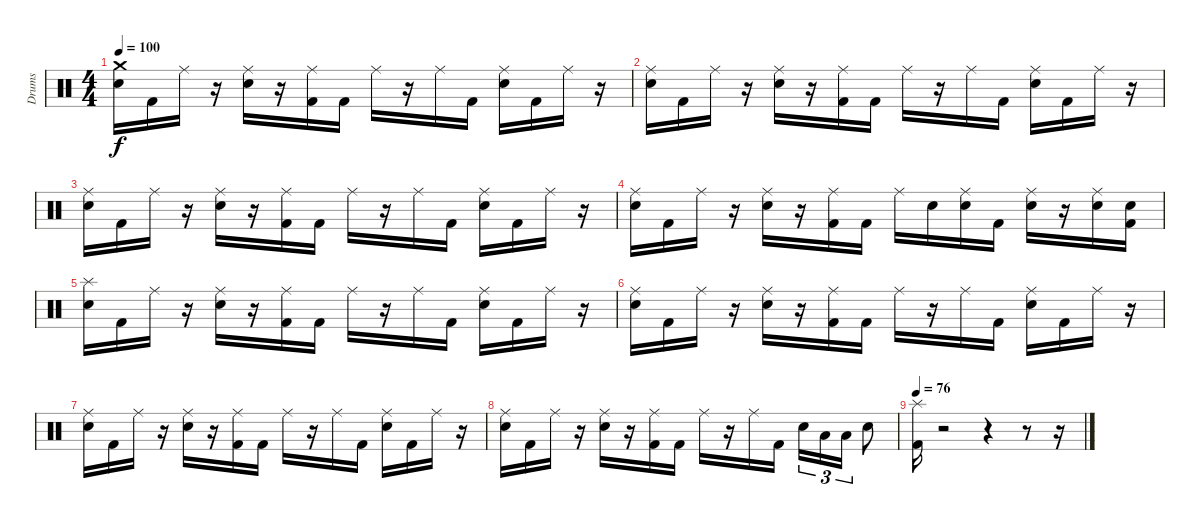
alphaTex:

\track ("Drums" "Drums") {instrument percussion}
\staff {score}
\articulation defaults
\ts (4 4)
\tempo 100
\clef neutral
\ks c
("Crash medium (hit)" "Snare (hit) 2").16{dy f} "Kick (hit) 2".16 "Ride (middle)".16 r.16 ("Ride (middle)" "Snare (hit) 2").16 r.16 ("Ride (middle)" "Kick (hit) 2").16 "Kick (hit) 2".16 "Ride (middle)".16 r.16 "Ride (middle)".16 "Kick (hit) 2".16 ("Ride (middle)" "Snare (hit) 2").16 "Kick (hit) 2".16 "Ride (middle)".16 r.16 |
("Ride (middle)" "Snare (hit) 2").16 "Kick (hit) 2".16 "Ride (middle)".16 r.16 ("Ride (middle)" "Snare (hit) 2").16 r.16 ("Ride (middle)" "Kick (hit) 2").16 "Kick (hit) 2".16 "Ride (middle)".16 r.16 "Ride (middle)".16 "Kick (hit) 2".16 ("Ride (middle)" "Snare (hit) 2").16 "Kick (hit) 2".16 "Ride (middle)".16 r.16 |
("Ride (middle)" "Snare (hit) 2").16 "Kick (hit) 2".16 "Ride (middle)".16 r.16 ("Ride (middle)" "Snare (hit) 2").16 r.16 ("Ride (middle)" "Kick (hit) 2").16 "Kick (hit) 2".16 "Ride (middle)".16 r.16 "Ride (middle)".16 "Kick (hit) 2".16 ("Ride (middle)" "Snare (hit) 2").16 "Kick (hit) 2".16 "Ride (middle)".16 r.16 |
("Ride (middle)" "Snare (hit) 2").16 "Kick (hit) 2".16 "Ride (middle)".16 r.16 ("Ride (middle)" "Snare (hit) 2").16 r.16 ("Ride (middle)" "Kick (hit) 2").16 "Kick (hit) 2".16 "Ride (middle)".16 "Snare (hit) 2".16 ("Ride (middle)" "Snare (hit) 2").16 "Kick (hit) 2".16 ("Ride (middle)" "Snare (hit) 2").16 r.16 ("Ride (middle)" "Snare (hit) 2").16 ("Snare (hit) 2" "Kick (hit) 2").16 |
("Splash (hit)" "Snare (hit) 2").16 "Kick (hit) 2".16 "Ride (middle)".16 r.16 ("Ride (middle)" "Snare (hit) 2").16 r.16 ("Ride (middle)" "Kick (hit) 2").16 "Kick (hit) 2".16 "Ride (middle)".16 r.16 "Ride (middle)".16 "Kick (hit) 2".16 ("Ride (middle)" "Snare (hit) 2").16 "Kick (hit) 2".16 "Ride (middle)".16 r.16 |
("Ride (middle)" "Snare (hit) 2").16 "Kick (hit) 2".16 "Ride (middle)".16 r.16 ("Ride (middle)" "Snare (hit) 2").16 r.16 ("Ride (middle)" "Kick (hit) 2").16 "Kick (hit) 2".16 "Ride (middle)".16 r.16 "Ride (middle)".16 "Kick (hit) 2".16 ("Ride (middle)" "Snare (hit) 2").16 "Kick (hit) 2".16 "Ride (middle)".16 r.16 |
("Ride (middle)" "Snare (hit) 2").16 "Kick (hit) 2".16 "Ride (middle)".16 r.16 ("Ride (middle)" "Snare (hit) 2").16 r.16 ("Ride (middle)" "Kick (hit) 2").16 "Kick (hit) 2".16 "Ride (middle)".16 r.16 "Ride (middle)".16 "Kick (hit) 2".16 ("Ride (middle)" "Snare (hit) 2").16 "Kick (hit) 2".16 "Ride (middle)".16 r.16 |
("Ride (middle)" "Snare (hit) 2").16 "Kick (hit) 2".16 "Ride (middle)".16 r.16 ("Ride (middle)" "Snare (hit) 2").16 r.16 ("Ride (middle)" "Kick (hit) 2").16 "Kick (hit) 2".16 "Ride (middle)".16 r.16 "Ride (middle)".16 "Kick (hit) 2".16 "Snare (hit) 2".16{tu (3 2)} "Low Floor Tom (hit)".16{tu (3 2)} "Low Floor Tom (hit)".16{tu (3 2)} "Snare (hit) 2".8 |
\tempo 76
("Splash (hit)" "Kick (hit) 2").16 r.2 r.4 r.8 r.16
